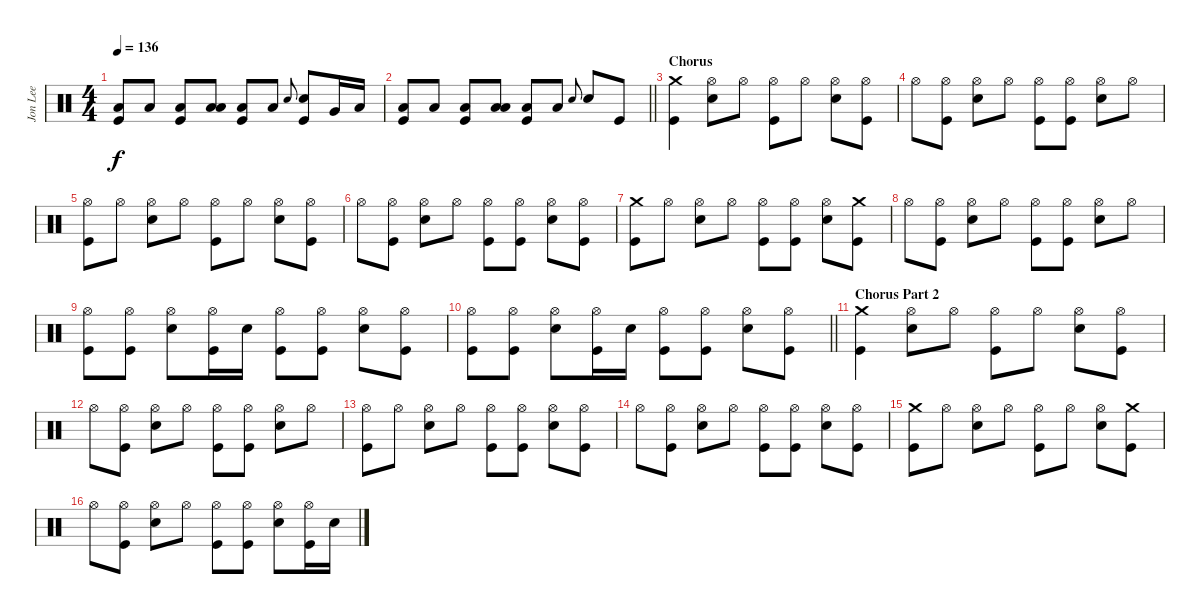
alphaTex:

\track ("Jon Lee" "Jon Lee") {instrument percussion}
\staff {score}
\articulation defaults
\ts (4 4)
\tempo 136
\clef neutral
\ks c
("Low Floor Tom (hit)" "Kick (hit)").8{dy f} "Low Floor Tom (hit)".8 ("Low Floor Tom (hit)" "Kick (hit)").8 ("Low Floor Tom (hit)" "Low Tom (hit)").8 ("Low Floor Tom (hit)" "Kick (hit)").8 "Low Floor Tom (hit)".8 "Electric Snare (hit)".8{gr onbeat} ("Electric Snare (hit)" "Kick (hit)").8 "Very Low Tom (hit)".16 "Low Tom (hit)".16 |
\barLineRight lightlight
("Low Floor Tom (hit)" "Kick (hit)").8 "Low Floor Tom (hit)".8 ("Low Floor Tom (hit)" "Kick (hit)").8 ("Low Floor Tom (hit)" "Low Tom (hit)").8 ("Low Floor Tom (hit)" "Kick (hit)").8 "Low Floor Tom (hit)".8 "Electric Snare (hit)".8{gr onbeat} "Electric Snare (hit)".8 "Kick (hit)".8 |
\section ("" "Chorus")
("Crash medium (hit)" "Kick (hit)").4 ("Hi-Hat (open)" "Electric Snare (hit)").8 "Hi-Hat (open)".8 ("Hi-Hat (open)" "Kick (hit)").8 "Hi-Hat (open)".8 ("Hi-Hat (open)" "Electric Snare (hit)").8 ("Hi-Hat (open)" "Kick (hit)").8 |
"Hi-Hat (open)".8 ("Hi-Hat (open)" "Kick (hit)").8 ("Hi-Hat (open)" "Electric Snare (hit)").8 "Hi-Hat (open)".8 ("Hi-Hat (open)" "Kick (hit)").8 ("Hi-Hat (open)" "Kick (hit)").8 ("Hi-Hat (open)" "Electric Snare (hit)").8 "Hi-Hat (open)".8 |
("Hi-Hat (open)" "Kick (hit)").8 "Hi-Hat (open)".8 ("Hi-Hat (open)" "Electric Snare (hit)").8 "Hi-Hat (open)".8 ("Hi-Hat (open)" "Kick (hit)").8 "Hi-Hat (open)".8 ("Hi-Hat (open)" "Electric Snare (hit)").8 ("Hi-Hat (open)" "Kick (hit)").8 |
"Hi-Hat (open)".8 ("Hi-Hat (open)" "Kick (hit)").8 ("Hi-Hat (open)" "Electric Snare (hit)").8 "Hi-Hat (open)".8 ("Hi-Hat (open)" "Kick (hit)").8 ("Hi-Hat (open)" "Kick (hit)").8 ("Hi-Hat (open)" "Electric Snare (hit)").8 ("Hi-Hat (open)" "Kick (hit)").8 |
("Crash medium (hit)" "Kick (hit)").8 "Hi-Hat (open)".8 ("Hi-Hat (open)" "Electric Snare (hit)").8 "Hi-Hat (open)".8 ("Hi-Hat (open)" "Kick (hit)").8 ("Hi-Hat (open)" "Kick (hit)").8 ("Hi-Hat (open)" "Electric Snare (hit)").8 ("Crash medium (hit)" "Kick (hit)").8 |
"Hi-Hat (open)".8 ("Hi-Hat (open)" "Kick (hit)").8 ("Hi-Hat (open)" "Electric Snare (hit)").8 "Hi-Hat (open)".8 ("Hi-Hat (open)" "Kick (hit)").8 ("Hi-Hat (open)" "Kick (hit)").8 ("Hi-Hat (open)" "Electric Snare (hit)").8 "Hi-Hat (open)".8 |
("Hi-Hat (open)" "Kick (hit)").8 ("Hi-Hat (open)" "Kick (hit)").8 ("Hi-Hat (open)" "Electric Snare (hit)").8 ("Hi-Hat (open)" "Kick (hit)").16 "Electric Snare (hit)".16 ("Hi-Hat (open)" "Kick (hit)").8 ("Hi-Hat (open)" "Kick (hit)").8 ("Hi-Hat (open)" "Electric Snare (hit)").8 ("Hi-Hat (open)" "Kick (hit)").8 |
\barLineRight lightlight
("Hi-Hat (open)" "Kick (hit)").8 ("Hi-Hat (open)" "Kick (hit)").8 ("Hi-Hat (open)" "Electric Snare (hit)").8 ("Hi-Hat (open)" "Kick (hit)").16 "Electric Snare (hit)".16 ("Hi-Hat (open)" "Kick (hit)").8 ("Hi-Hat (open)" "Kick (hit)").8 ("Hi-Hat (open)" "Electric Snare (hit)").8 ("Hi-Hat (open)" "Kick (hit)").8 |
\section ("" "Chorus Part 2")
("Crash medium (hit)" "Kick (hit)").4 ("Hi-Hat (open)" "Electric Snare (hit)").8 "Hi-Hat (open)".8 ("Hi-Hat (open)" "Kick (hit)").8 "Hi-Hat (open)".8 ("Hi-Hat (open)" "Electric Snare (hit)").8 ("Hi-Hat (open)" "Kick (hit)").8 |
"Hi-Hat (open)".8 ("Hi-Hat (open)" "Kick (hit)").8 ("Hi-Hat (open)" "Electric Snare (hit)").8 "Hi-Hat (open)".8 ("Hi-Hat (open)" "Kick (hit)").8 ("Hi-Hat (open)" "Kick (hit)").8 ("Hi-Hat (open)" "Electric Snare (hit)").8 "Hi-Hat (open)".8 |
("Hi-Hat (open)" "Kick (hit)").8 "Hi-Hat (open)".8 ("Hi-Hat (open)" "Electric Snare (hit)").8 "Hi-Hat (open)".8 ("Hi-Hat (open)" "Kick (hit)").8 ("Hi-Hat (open)" "Kick (hit)").8 ("Hi-Hat (open)" "Electric Snare (hit)").8 ("Hi-Hat (open)" "Kick (hit)").8 |
"Hi-Hat (open)".8 ("Hi-Hat (open)" "Kick (hit)").8 ("Hi-Hat (open)" "Electric Snare (hit)").8 "Hi-Hat (open)".8 ("Hi-Hat (open)" "Kick (hit)").8 ("Hi-Hat (open)" "Kick (hit)").8 ("Hi-Hat (open)" "Electric Snare (hit)").8 ("Hi-Hat (open)" "Kick (hit)").8 |
("Crash medium (hit)" "Kick (hit)").8 "Hi-Hat (open)".8 ("Hi-Hat (open)" "Electric Snare (hit)").8 "Hi-Hat (open)".8 ("Hi-Hat (open)" "Kick (hit)").8 "Hi-Hat (open)".8 ("Hi-Hat (open)" "Electric Snare (hit)").8 ("Crash medium (hit)" "Kick (hit)").8 |
"Hi-Hat (open)".8 ("Hi-Hat (open)" "Kick (hit)").8 ("Hi-Hat (open)" "Electric Snare (hit)").8 "Hi-Hat (open)".8 ("Hi-Hat (open)" "Kick (hit)").8 ("Hi-Hat (open)" "Kick (hit)").8 ("Hi-Hat (open)" "Electric Snare (hit)").8 ("Hi-Hat (open)" "Kick (hit)").16 "Electric Snare (hit)".16
